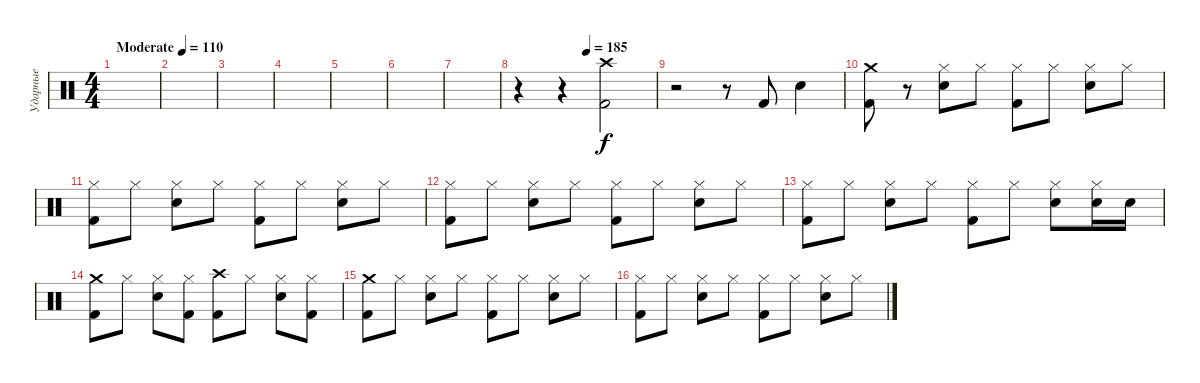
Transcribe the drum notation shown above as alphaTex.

\track ("Ударные" "Ударные") {instrument percussion}
\staff {score}
\articulation defaults
\ts (4 4)
\tempo (110 "Moderate")
\clef neutral
\ks c
|
|
|
|
|
|
|
\tempo (185 0.5)
r.4 r.4 ("Crash high (hit)" "Kick (hit) 2").2 |
r.2 r.8 "Kick (hit) 2".8 "Electric Snare (hit)".4 |
("Kick (hit) 2" "Crash medium (hit)").8 r.8 ("Hi-Hat (closed)" "Electric Snare (hit)").8 "Hi-Hat (closed)".8 ("Hi-Hat (closed)" "Kick (hit) 2").8 "Hi-Hat (closed)".8 ("Hi-Hat (closed)" "Electric Snare (hit)").8 "Hi-Hat (closed)".8 |
("Hi-Hat (closed)" "Kick (hit) 2").8 "Hi-Hat (closed)".8 ("Hi-Hat (closed)" "Electric Snare (hit)").8 "Hi-Hat (closed)".8 ("Hi-Hat (closed)" "Kick (hit) 2").8 "Hi-Hat (closed)".8 ("Hi-Hat (closed)" "Electric Snare (hit)").8 "Hi-Hat (closed)".8 |
("Hi-Hat (closed)" "Kick (hit) 2").8 "Hi-Hat (closed)".8 ("Hi-Hat (closed)" "Electric Snare (hit)").8 "Hi-Hat (closed)".8 ("Hi-Hat (closed)" "Kick (hit) 2").8 "Hi-Hat (closed)".8 ("Hi-Hat (closed)" "Electric Snare (hit)").8 "Hi-Hat (closed)".8 |
("Hi-Hat (closed)" "Kick (hit) 2").8 "Hi-Hat (closed)".8 ("Hi-Hat (closed)" "Electric Snare (hit)").8 "Hi-Hat (closed)".8 ("Hi-Hat (closed)" "Kick (hit) 2").8 "Hi-Hat (closed)".8 ("Hi-Hat (closed)" "Electric Snare (hit)").8 ("Hi-Hat (closed)" "Electric Snare (hit)").16 "Electric Snare (hit)".16 |
("Crash medium (hit)" "Kick (hit) 2").8 "Hi-Hat (closed)".8 ("Hi-Hat (closed)" "Electric Snare (hit)").8 ("Hi-Hat (closed)" "Kick (hit) 2").8 ("Crash high (hit)" "Kick (hit) 2").8 "Hi-Hat (closed)".8 ("Hi-Hat (closed)" "Electric Snare (hit)").8 ("Hi-Hat (closed)" "Kick (hit) 2").8 |
("Crash medium (hit)" "Kick (hit) 2").8 "Hi-Hat (closed)".8 ("Hi-Hat (closed)" "Electric Snare (hit)").8 "Hi-Hat (closed)".8 ("Hi-Hat (closed)" "Kick (hit) 2").8 "Hi-Hat (closed)".8 ("Hi-Hat (closed)" "Electric Snare (hit)").8 "Hi-Hat (closed)".8 |
("Hi-Hat (closed)" "Kick (hit) 2").8 "Hi-Hat (closed)".8 ("Hi-Hat (closed)" "Electric Snare (hit)").8 "Hi-Hat (closed)".8 ("Hi-Hat (closed)" "Kick (hit) 2").8 "Hi-Hat (closed)".8 ("Hi-Hat (closed)" "Electric Snare (hit)").8 "Hi-Hat (closed)".8
